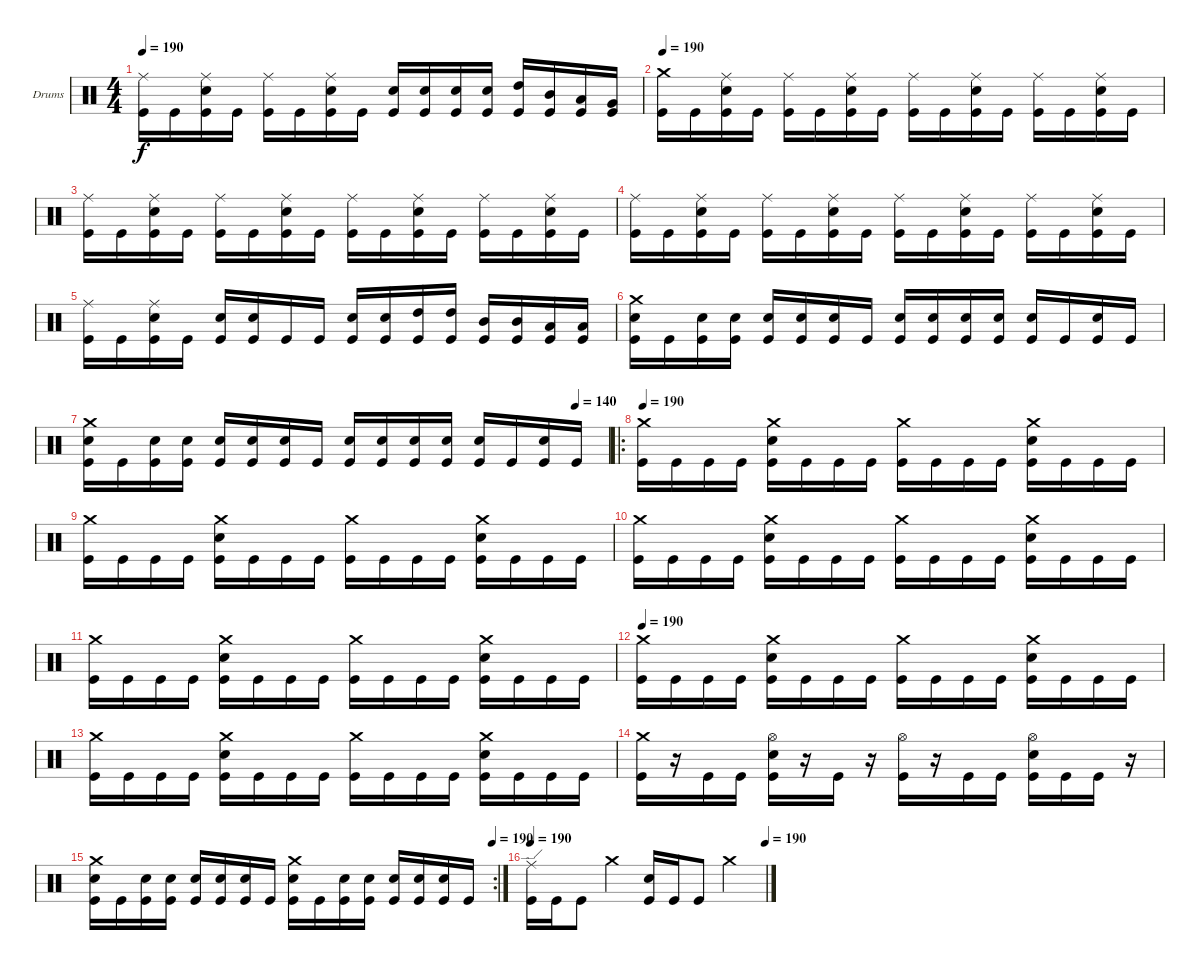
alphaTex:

\bracketExtendMode groupsimilarinstruments
\firstSystemTrackNameOrientation horizontal
\otherSystemsTrackNameOrientation horizontal
\track ("Drumkit" "Drums") {instrument percussion}
\staff {score}
\articulation defaults
\ts (4 4)
\tempo 190
\clef neutral
\ks c
("Ride (middle)" "Kick (hit)").16{dy f} "Kick (hit)".16 ("Ride (middle)" "Snare (hit) 2" "Kick (hit)").16 "Kick (hit)".16 ("Ride (middle)" "Kick (hit)").16 "Kick (hit)".16 ("Ride (middle)" "Snare (hit) 2" "Kick (hit)").16 "Kick (hit)".16 ("Snare (hit) 2" "Kick (hit)").16 ("Snare (hit) 2" "Kick (hit)").16 ("Snare (hit) 2" "Kick (hit)").16 ("Snare (hit) 2" "Kick (hit)").16 ("High Tom (hit)" "Kick (hit)").16 ("Mid Tom (hit)" "Kick (hit)").16 ("Low Tom (hit)" "Kick (hit)").16 ("Very Low Tom (hit)" "Kick (hit)").16 |
\tempo 190
("Crash medium (hit)" "Kick (hit)").16 "Kick (hit)".16 ("Ride (middle)" "Snare (hit) 2" "Kick (hit)").16 "Kick (hit)".16 ("Ride (middle)" "Kick (hit)").16 "Kick (hit)".16 ("Ride (middle)" "Snare (hit) 2" "Kick (hit)").16 "Kick (hit)".16 ("Ride (middle)" "Kick (hit)").16 "Kick (hit)".16 ("Ride (middle)" "Snare (hit) 2" "Kick (hit)").16 "Kick (hit)".16 ("Ride (middle)" "Kick (hit)").16 "Kick (hit)".16 ("Ride (middle)" "Snare (hit) 2" "Kick (hit)").16 "Kick (hit)".16 |
("Ride (middle)" "Kick (hit)").16 "Kick (hit)".16 ("Ride (middle)" "Snare (hit) 2" "Kick (hit)").16 "Kick (hit)".16 ("Ride (middle)" "Kick (hit)").16 "Kick (hit)".16 ("Ride (middle)" "Snare (hit) 2" "Kick (hit)").16 "Kick (hit)".16 ("Ride (middle)" "Kick (hit)").16 "Kick (hit)".16 ("Ride (middle)" "Snare (hit) 2" "Kick (hit)").16 "Kick (hit)".16 ("Ride (middle)" "Kick (hit)").16 "Kick (hit)".16 ("Ride (middle)" "Snare (hit) 2" "Kick (hit)").16 "Kick (hit)".16 |
("Ride (middle)" "Kick (hit)").16 "Kick (hit)".16 ("Ride (middle)" "Snare (hit) 2" "Kick (hit)").16 "Kick (hit)".16 ("Ride (middle)" "Kick (hit)").16 "Kick (hit)".16 ("Ride (middle)" "Snare (hit) 2" "Kick (hit)").16 "Kick (hit)".16 ("Ride (middle)" "Kick (hit)").16 "Kick (hit)".16 ("Ride (middle)" "Snare (hit) 2" "Kick (hit)").16 "Kick (hit)".16 ("Ride (middle)" "Kick (hit)").16 "Kick (hit)".16 ("Ride (middle)" "Snare (hit) 2" "Kick (hit)").16 "Kick (hit)".16 |
("Ride (middle)" "Kick (hit)").16 "Kick (hit)".16 ("Ride (middle)" "Snare (hit) 2" "Kick (hit)").16 "Kick (hit)".16 ("Snare (hit) 2" "Kick (hit)").16 ("Snare (hit) 2" "Kick (hit)").16 "Kick (hit)".16 "Kick (hit)".16 ("Snare (hit) 2" "Kick (hit)").16 ("Snare (hit) 2" "Kick (hit)").16 ("High Tom (hit)" "Kick (hit)").16 ("High Tom (hit)" "Kick (hit)").16 ("Mid Tom (hit)" "Kick (hit)").16 ("Mid Tom (hit)" "Kick (hit)").16 ("Low Tom (hit)" "Kick (hit)").16 ("Low Tom (hit)" "Kick (hit)").16 |
("Crash medium (hit)" "Snare (hit) 2" "Kick (hit)").16 "Kick (hit)".16 ("Snare (hit) 2" "Kick (hit)").16 ("Snare (hit) 2" "Kick (hit)").16 ("Snare (hit) 2" "Kick (hit)").16 ("Snare (hit) 2" "Kick (hit)").16 ("Snare (hit) 2" "Kick (hit)").16 "Kick (hit)".16 ("Snare (hit) 2" "Kick (hit)").16 ("Snare (hit) 2" "Kick (hit)").16 ("Snare (hit) 2" "Kick (hit)").16 ("Snare (hit) 2" "Kick (hit)").16 ("Snare (hit) 2" "Kick (hit)").16 "Kick (hit)".16 ("Snare (hit) 2" "Kick (hit)").16 "Kick (hit)".16 |
\tempo (140 0.9375)
("Crash medium (hit)" "Snare (hit) 2" "Kick (hit)").16 "Kick (hit)".16 ("Snare (hit) 2" "Kick (hit)").16 ("Snare (hit) 2" "Kick (hit)").16 ("Snare (hit) 2" "Kick (hit)").16 ("Snare (hit) 2" "Kick (hit)").16 ("Snare (hit) 2" "Kick (hit)").16 "Kick (hit)".16 ("Snare (hit) 2" "Kick (hit)").16 ("Snare (hit) 2" "Kick (hit)").16 ("Snare (hit) 2" "Kick (hit)").16 ("Snare (hit) 2" "Kick (hit)").16 ("Snare (hit) 2" "Kick (hit)").16 "Kick (hit)".16 ("Snare (hit) 2" "Kick (hit)").16 "Kick (hit)".16 |
\ro
\tempo 190
("Crash medium (hit)" "Kick (hit)").16 "Kick (hit)".16 "Kick (hit)".16 "Kick (hit)".16 ("Crash medium (hit)" "Snare (hit) 2" "Kick (hit)").16 "Kick (hit)".16 "Kick (hit)".16 "Kick (hit)".16 ("Crash medium (hit)" "Kick (hit)").16 "Kick (hit)".16 "Kick (hit)".16 "Kick (hit)".16 ("Crash medium (hit)" "Snare (hit) 2" "Kick (hit)").16 "Kick (hit)".16 "Kick (hit)".16 "Kick (hit)".16 |
("Crash medium (hit)" "Kick (hit)").16 "Kick (hit)".16 "Kick (hit)".16 "Kick (hit)".16 ("Crash medium (hit)" "Snare (hit) 2" "Kick (hit)").16 "Kick (hit)".16 "Kick (hit)".16 "Kick (hit)".16 ("Crash medium (hit)" "Kick (hit)").16 "Kick (hit)".16 "Kick (hit)".16 "Kick (hit)".16 ("Crash medium (hit)" "Snare (hit) 2" "Kick (hit)").16 "Kick (hit)".16 "Kick (hit)".16 "Kick (hit)".16 |
("Crash medium (hit)" "Kick (hit)").16 "Kick (hit)".16 "Kick (hit)".16 "Kick (hit)".16 ("Crash medium (hit)" "Snare (hit) 2" "Kick (hit)").16 "Kick (hit)".16 "Kick (hit)".16 "Kick (hit)".16 ("Crash medium (hit)" "Kick (hit)").16 "Kick (hit)".16 "Kick (hit)".16 "Kick (hit)".16 ("Crash medium (hit)" "Snare (hit) 2" "Kick (hit)").16 "Kick (hit)".16 "Kick (hit)".16 "Kick (hit)".16 |
("Crash medium (hit)" "Kick (hit)").16 "Kick (hit)".16 "Kick (hit)".16 "Kick (hit)".16 ("Crash medium (hit)" "Snare (hit) 2" "Kick (hit)").16 "Kick (hit)".16 "Kick (hit)".16 "Kick (hit)".16 ("Crash medium (hit)" "Kick (hit)").16 "Kick (hit)".16 "Kick (hit)".16 "Kick (hit)".16 ("Crash medium (hit)" "Snare (hit) 2" "Kick (hit)").16 "Kick (hit)".16 "Kick (hit)".16 "Kick (hit)".16 |
\tempo 190
("Crash medium (hit)" "Kick (hit)").16 "Kick (hit)".16 "Kick (hit)".16 "Kick (hit)".16 ("Crash medium (hit)" "Snare (hit) 2" "Kick (hit)").16 "Kick (hit)".16 "Kick (hit)".16 "Kick (hit)".16 ("Crash medium (hit)" "Kick (hit)").16 "Kick (hit)".16 "Kick (hit)".16 "Kick (hit)".16 ("Crash medium (hit)" "Snare (hit) 2" "Kick (hit)").16 "Kick (hit)".16 "Kick (hit)".16 "Kick (hit)".16 |
("Crash medium (hit)" "Kick (hit)").16 "Kick (hit)".16 "Kick (hit)".16 "Kick (hit)".16 ("Crash medium (hit)" "Snare (hit) 2" "Kick (hit)").16 "Kick (hit)".16 "Kick (hit)".16 "Kick (hit)".16 ("Crash medium (hit)" "Kick (hit)").16 "Kick (hit)".16 "Kick (hit)".16 "Kick (hit)".16 ("Crash medium (hit)" "Snare (hit) 2" "Kick (hit)").16 "Kick (hit)".16 "Kick (hit)".16 "Kick (hit)".16 |
("Crash medium (hit)" "Kick (hit)").16 r.16 "Kick (hit)".16 "Kick (hit)".16 ("Hi-Hat (open)" "Snare (hit) 2" "Kick (hit)").16 r.16 "Kick (hit)".16 r.16 ("Hi-Hat (open)" "Kick (hit)").16 r.16 "Kick (hit)".16 "Kick (hit)".16 ("Hi-Hat (open)" "Snare (hit) 2" "Kick (hit)").16 "Kick (hit)".16 "Kick (hit)".16 r.16 |
\rc 2
\tempo (190 1)
("Crash medium (hit)" "Snare (hit) 2" "Kick (hit)").16 "Kick (hit)".16 ("Snare (hit) 2" "Kick (hit)").16 ("Snare (hit) 2" "Kick (hit)").16 ("Snare (hit) 2" "Kick (hit)").16 ("Snare (hit) 2" "Kick (hit)").16 ("Snare (hit) 2" "Kick (hit)").16 "Kick (hit)".16 ("Crash medium (hit)" "Snare (hit) 2" "Kick (hit)").16 "Kick (hit)".16 ("Snare (hit) 2" "Kick (hit)").16 ("Snare (hit) 2" "Kick (hit)").16 ("Snare (hit) 2" "Kick (hit)").16 ("Snare (hit) 2" "Kick (hit)").16 ("Snare (hit) 2" "Kick (hit)").16 "Kick (hit)".16 |
\tempo 190
\tempo (190 1)
("Ride (edge)" "Kick (hit)").16 "Kick (hit)".16 "Kick (hit)".8 "Crash medium (hit)".4 ("Snare (hit) 2" "Kick (hit)").16 "Kick (hit)".16 "Kick (hit)".8 "Crash medium (hit)".4
